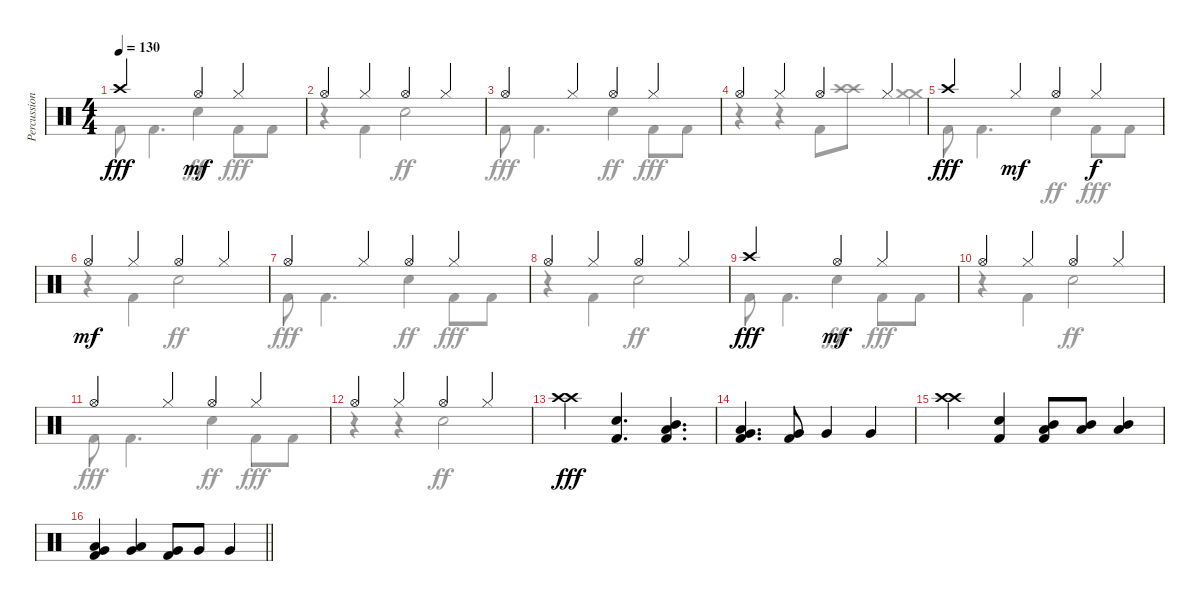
\track ("Percussions" "Percussion") {instrument percussion}
\staff {score}
\articulation defaults
\voice
\ts (4 4)
\tempo 130
\clef neutral
\ks c "Crash high (hit)".2{dy fff} "Hi-Hat (open)".4{dy mf} "Hi-Hat (closed)".4
|
"Hi-Hat (open)".4 "Hi-Hat (closed)".4 "Hi-Hat (open)".4 "Hi-Hat (closed)".4 |
"Hi-Hat (open)".4 "Hi-Hat (closed)".4 "Hi-Hat (open)".4 "Hi-Hat (closed)".4 |
"Hi-Hat (open)".4 "Hi-Hat (closed)".4 "Hi-Hat (open)".4 "Hi-Hat (closed)".4 |
"Crash high (hit)".4{dy fff} "Hi-Hat (closed)".4{dy mf} "Hi-Hat (open)".4 "Hi-Hat (closed)".4{dy f} |
"Hi-Hat (open)".4{dy mf} "Hi-Hat (closed)".4 "Hi-Hat (open)".4 "Hi-Hat (closed)".4 |
"Hi-Hat (open)".4 "Hi-Hat (closed)".4 "Hi-Hat (open)".4 "Hi-Hat (closed)".4 |
"Hi-Hat (open)".4 "Hi-Hat (closed)".4 "Hi-Hat (open)".4 "Hi-Hat (closed)".4 |
"Crash high (hit)".2{dy fff} "Hi-Hat (open)".4{dy mf} "Hi-Hat (closed)".4 |
"Hi-Hat (open)".4 "Hi-Hat (closed)".4 "Hi-Hat (open)".4 "Hi-Hat (closed)".4 |
"Hi-Hat (open)".4 "Hi-Hat (closed)".4 "Hi-Hat (open)".4 "Hi-Hat (closed)".4 |
"Hi-Hat (open)".4 "Hi-Hat (closed)".4 "Hi-Hat (open)".4 "Hi-Hat (closed)".4 |
("Crash high (hit)" "Crash high (hit)").4{dy fff} ("Electric Snare (hit)" "Kick (hit) 2").4{d} ("Mid Tom (hit)" "Low Tom (hit)" "Kick (hit) 2").4{d} |
("Low Tom (hit)" "Very Low Tom (hit)" "Kick (hit) 2").4{d} ("Very Low Tom (hit)" "Kick (hit) 2").8 "Very Low Tom (hit)".4 "Very Low Tom (hit)".4 |
("Crash high (hit)" "Crash high (hit)").4 ("Electric Snare (hit)" "Kick (hit) 2").4 ("Mid Tom (hit)" "Low Tom (hit)" "Kick (hit) 2").8 ("Mid Tom (hit)" "Low Tom (hit)").8 ("Mid Tom (hit)" "Low Tom (hit)").4 |
\barLineRight lightlight
("Low Tom (hit)" "Very Low Tom (hit)" "Kick (hit) 2").4 ("Low Tom (hit)" "Very Low Tom (hit)").4 ("Very Low Tom (hit)" "Kick (hit) 2").8 "Very Low Tom (hit)".8 "Very Low Tom (hit)".4
\voice
\clef neutral
\ottava regular
\simile none
\ks c "Kick (hit) 2".8{dy fff} "Kick (hit) 2".4{d} "Electric Snare (hit)".4{dy ff} "Kick (hit) 2".8{dy fff} "Kick (hit) 2".8
|
r.4 "Kick (hit) 2".4 "Electric Snare (hit)".2{dy ff} |
"Kick (hit) 2".8{dy fff} "Kick (hit) 2".4{d} "Electric Snare (hit)".4{dy ff} "Kick (hit) 2".8{dy fff} "Kick (hit) 2".8 |
r.4 r.4 "Kick (hit) 2".8 ("Crash high (hit)" "Crash high (hit)").8 ("Crash medium (hit)" "Crash medium (hit)").4 |
"Kick (hit) 2".8 "Kick (hit) 2".4{d} "Electric Snare (hit)".4{dy ff} "Kick (hit) 2".8{dy fff} "Kick (hit) 2".8 |
r.4 "Kick (hit) 2".4 "Electric Snare (hit)".2{dy ff} |
"Kick (hit) 2".8{dy fff} "Kick (hit) 2".4{d} "Electric Snare (hit)".4{dy ff} "Kick (hit) 2".8{dy fff} "Kick (hit) 2".8 |
r.4 "Kick (hit) 2".4 "Electric Snare (hit)".2{dy ff} |
"Kick (hit) 2".8{dy fff} "Kick (hit) 2".4{d} "Electric Snare (hit)".4{dy ff} "Kick (hit) 2".8{dy fff} "Kick (hit) 2".8 |
r.4 "Kick (hit) 2".4 "Electric Snare (hit)".2{dy ff} |
"Kick (hit) 2".8{dy fff} "Kick (hit) 2".4{d} "Electric Snare (hit)".4{dy ff} "Kick (hit) 2".8{dy fff} "Kick (hit) 2".8 |
r.4 r.4 "Electric Snare (hit)".2{dy ff} |
|
|
|
\barLineRight lightlight
